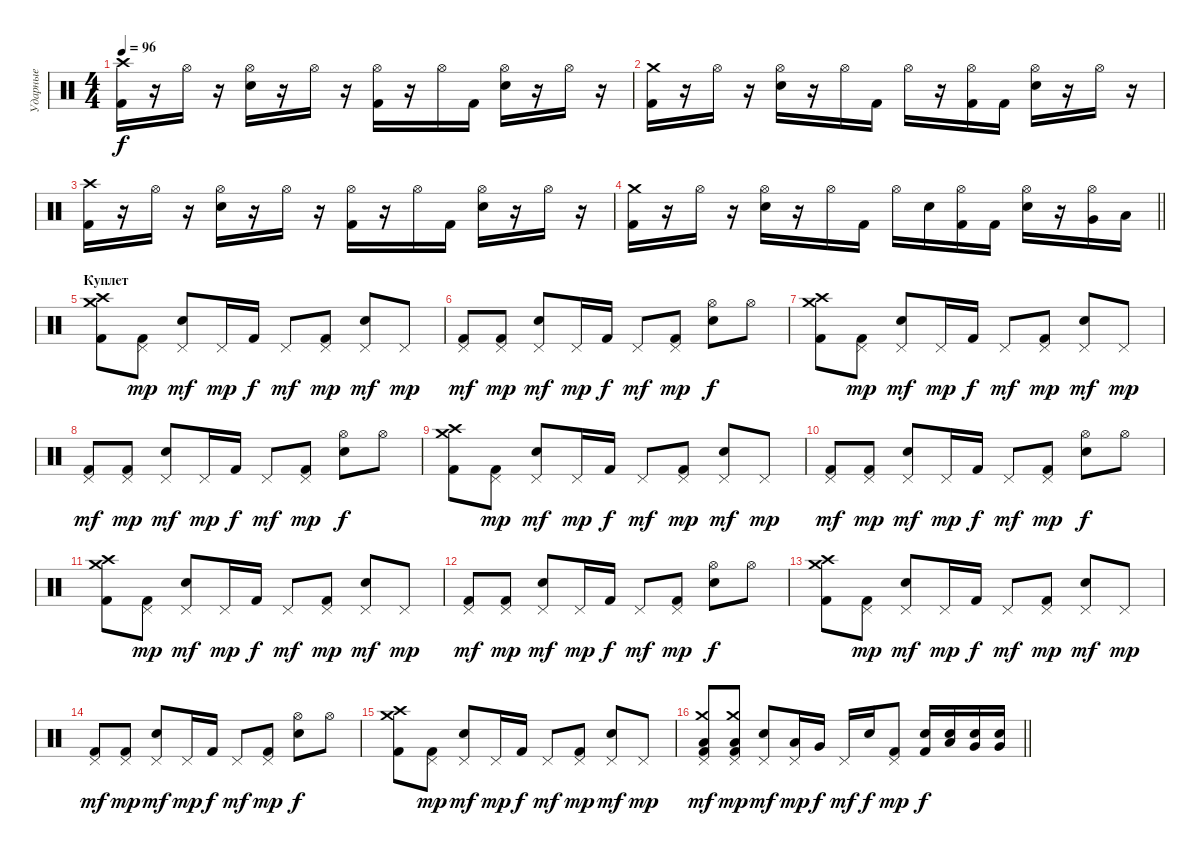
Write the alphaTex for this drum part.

\track ("Ударные" "Ударные") {instrument percussion}
\staff {score}
\articulation defaults
\ts (4 4)
\tempo 96
\clef neutral
\ks c
("Crash high (hit)" "Kick (hit) 2").16{dy f} r.16 "Hi-Hat (open)".16 r.16 ("Hi-Hat (open)" "Electric Snare (hit)").16 r.16 "Hi-Hat (open)".16 r.16 ("Hi-Hat (open)" "Kick (hit) 2").16 r.16 "Hi-Hat (open)".16 "Kick (hit) 2".16 ("Hi-Hat (open)" "Electric Snare (hit)").16 r.16 "Hi-Hat (open)".16 r.16 |
("Crash medium (hit)" "Kick (hit) 2").16 r.16 "Hi-Hat (open)".16 r.16 ("Hi-Hat (open)" "Electric Snare (hit)").16 r.16 "Hi-Hat (open)".16 "Kick (hit) 2".16 "Hi-Hat (open)".16 r.16 ("Hi-Hat (open)" "Kick (hit) 2").16 "Kick (hit) 2".16 ("Hi-Hat (open)" "Electric Snare (hit)").16 r.16 "Hi-Hat (open)".16 r.16 |
("Crash high (hit)" "Kick (hit) 2").16 r.16 "Hi-Hat (open)".16 r.16 ("Hi-Hat (open)" "Electric Snare (hit)").16 r.16 "Hi-Hat (open)".16 r.16 ("Hi-Hat (open)" "Kick (hit) 2").16 r.16 "Hi-Hat (open)".16 "Kick (hit) 2".16 ("Hi-Hat (open)" "Electric Snare (hit)").16 r.16 "Hi-Hat (open)".16 r.16 |
\barLineRight lightlight
("Crash medium (hit)" "Kick (hit) 2").16 r.16 "Hi-Hat (open)".16 r.16 ("Hi-Hat (open)" "Electric Snare (hit)").16 r.16 "Hi-Hat (open)".16 "Kick (hit) 2".16 "Hi-Hat (open)".16 "Electric Snare (hit)".16 ("Hi-Hat (open)" "Kick (hit) 2").16 "Kick (hit) 2".16 ("Hi-Hat (open)" "Electric Snare (hit)").16 r.16 ("Very Low Tom (hit)" "Hi-Hat (open)").16 "Low Tom (hit)".16 |
\section ("" "Куплет")
("Crash high (hit)" "Crash medium (hit)" "Kick (hit) 2").8 ("Kick (hit) 2" "Pedal Hi-Hat (hit)").8{dy mp} ("Snare (hit) 2" "Pedal Hi-Hat (hit)").8{dy mf} "Pedal Hi-Hat (hit)".16{dy mp} "Kick (hit) 2".16{dy f} "Pedal Hi-Hat (hit)".8{dy mf} ("Kick (hit) 2" "Pedal Hi-Hat (hit)").8{dy mp} ("Snare (hit) 2" "Pedal Hi-Hat (hit)").8{dy mf} "Pedal Hi-Hat (hit)".8{dy mp} |
("Kick (hit) 2" "Pedal Hi-Hat (hit)").8{dy mf} ("Kick (hit) 2" "Pedal Hi-Hat (hit)").8{dy mp} ("Snare (hit) 2" "Pedal Hi-Hat (hit)").8{dy mf} "Pedal Hi-Hat (hit)".16{dy mp} "Kick (hit) 2".16{dy f} "Pedal Hi-Hat (hit)".8{dy mf} ("Kick (hit) 2" "Pedal Hi-Hat (hit)").8{dy mp} ("Snare (hit) 2" "Hi-Hat (open)").8{dy f} "Hi-Hat (open)".8 |
("Crash high (hit)" "Crash medium (hit)" "Kick (hit) 2").8 ("Kick (hit) 2" "Pedal Hi-Hat (hit)").8{dy mp} ("Snare (hit) 2" "Pedal Hi-Hat (hit)").8{dy mf} "Pedal Hi-Hat (hit)".16{dy mp} "Kick (hit) 2".16{dy f} "Pedal Hi-Hat (hit)".8{dy mf} ("Kick (hit) 2" "Pedal Hi-Hat (hit)").8{dy mp} ("Snare (hit) 2" "Pedal Hi-Hat (hit)").8{dy mf} "Pedal Hi-Hat (hit)".8{dy mp} |
("Kick (hit) 2" "Pedal Hi-Hat (hit)").8{dy mf} ("Kick (hit) 2" "Pedal Hi-Hat (hit)").8{dy mp} ("Snare (hit) 2" "Pedal Hi-Hat (hit)").8{dy mf} "Pedal Hi-Hat (hit)".16{dy mp} "Kick (hit) 2".16{dy f} "Pedal Hi-Hat (hit)".8{dy mf} ("Kick (hit) 2" "Pedal Hi-Hat (hit)").8{dy mp} ("Snare (hit) 2" "Hi-Hat (open)").8{dy f} "Hi-Hat (open)".8 |
("Crash high (hit)" "Crash medium (hit)" "Kick (hit) 2").8 ("Kick (hit) 2" "Pedal Hi-Hat (hit)").8{dy mp} ("Snare (hit) 2" "Pedal Hi-Hat (hit)").8{dy mf} "Pedal Hi-Hat (hit)".16{dy mp} "Kick (hit) 2".16{dy f} "Pedal Hi-Hat (hit)".8{dy mf} ("Kick (hit) 2" "Pedal Hi-Hat (hit)").8{dy mp} ("Snare (hit) 2" "Pedal Hi-Hat (hit)").8{dy mf} "Pedal Hi-Hat (hit)".8{dy mp} |
("Kick (hit) 2" "Pedal Hi-Hat (hit)").8{dy mf} ("Kick (hit) 2" "Pedal Hi-Hat (hit)").8{dy mp} ("Snare (hit) 2" "Pedal Hi-Hat (hit)").8{dy mf} "Pedal Hi-Hat (hit)".16{dy mp} "Kick (hit) 2".16{dy f} "Pedal Hi-Hat (hit)".8{dy mf} ("Kick (hit) 2" "Pedal Hi-Hat (hit)").8{dy mp} ("Snare (hit) 2" "Hi-Hat (open)").8{dy f} "Hi-Hat (open)".8 |
("Crash high (hit)" "Crash medium (hit)" "Kick (hit) 2").8 ("Kick (hit) 2" "Pedal Hi-Hat (hit)").8{dy mp} ("Snare (hit) 2" "Pedal Hi-Hat (hit)").8{dy mf} "Pedal Hi-Hat (hit)".16{dy mp} "Kick (hit) 2".16{dy f} "Pedal Hi-Hat (hit)".8{dy mf} ("Kick (hit) 2" "Pedal Hi-Hat (hit)").8{dy mp} ("Snare (hit) 2" "Pedal Hi-Hat (hit)").8{dy mf} "Pedal Hi-Hat (hit)".8{dy mp} |
("Kick (hit) 2" "Pedal Hi-Hat (hit)").8{dy mf} ("Kick (hit) 2" "Pedal Hi-Hat (hit)").8{dy mp} ("Snare (hit) 2" "Pedal Hi-Hat (hit)").8{dy mf} "Pedal Hi-Hat (hit)".16{dy mp} "Kick (hit) 2".16{dy f} "Pedal Hi-Hat (hit)".8{dy mf} ("Kick (hit) 2" "Pedal Hi-Hat (hit)").8{dy mp} ("Snare (hit) 2" "Hi-Hat (open)").8{dy f} "Hi-Hat (open)".8 |
("Crash high (hit)" "Crash medium (hit)" "Kick (hit) 2").8 ("Kick (hit) 2" "Pedal Hi-Hat (hit)").8{dy mp} ("Snare (hit) 2" "Pedal Hi-Hat (hit)").8{dy mf} "Pedal Hi-Hat (hit)".16{dy mp} "Kick (hit) 2".16{dy f} "Pedal Hi-Hat (hit)".8{dy mf} ("Kick (hit) 2" "Pedal Hi-Hat (hit)").8{dy mp} ("Snare (hit) 2" "Pedal Hi-Hat (hit)").8{dy mf} "Pedal Hi-Hat (hit)".8{dy mp} |
("Kick (hit) 2" "Pedal Hi-Hat (hit)").8{dy mf} ("Kick (hit) 2" "Pedal Hi-Hat (hit)").8{dy mp} ("Snare (hit) 2" "Pedal Hi-Hat (hit)").8{dy mf} "Pedal Hi-Hat (hit)".16{dy mp} "Kick (hit) 2".16{dy f} "Pedal Hi-Hat (hit)".8{dy mf} ("Kick (hit) 2" "Pedal Hi-Hat (hit)").8{dy mp} ("Snare (hit) 2" "Hi-Hat (open)").8{dy f} "Hi-Hat (open)".8 |
("Crash high (hit)" "Crash medium (hit)" "Kick (hit) 2").8 ("Kick (hit) 2" "Pedal Hi-Hat (hit)").8{dy mp} ("Snare (hit) 2" "Pedal Hi-Hat (hit)").8{dy mf} "Pedal Hi-Hat (hit)".16{dy mp} "Kick (hit) 2".16{dy f} "Pedal Hi-Hat (hit)".8{dy mf} ("Kick (hit) 2" "Pedal Hi-Hat (hit)").8{dy mp} ("Snare (hit) 2" "Pedal Hi-Hat (hit)").8{dy mf} "Pedal Hi-Hat (hit)".8{dy mp} |
\barLineRight lightlight
("Crash medium (hit)" "Low Tom (hit)" "Kick (hit) 2" "Pedal Hi-Hat (hit)").8{dy mf} ("Crash medium (hit)" "Low Tom (hit)" "Kick (hit) 2" "Pedal Hi-Hat (hit)").8{dy mp} ("Snare (hit) 2" "Pedal Hi-Hat (hit)").8{dy mf} ("Low Tom (hit)" "Pedal Hi-Hat (hit)").16{dy mp} "Very Low Tom (hit)".16{dy f} "Pedal Hi-Hat (hit)".16{dy mf} "Electric Snare (hit)".16{dy f} ("Kick (hit) 2" "Pedal Hi-Hat (hit)").8{dy mp} ("Electric Snare (hit)" "Kick (hit) 2").16{dy f} ("Electric Snare (hit)" "Low Tom (hit)").16 ("Electric Snare (hit)" "Very Low Tom (hit)").16 ("Electric Snare (hit)" "Very Low Tom (hit)").16
